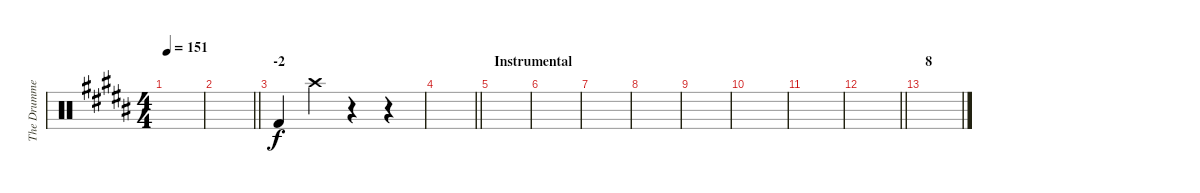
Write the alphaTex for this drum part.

\track ("The Drummer" "The Drumme") {instrument percussion}
\staff {score}
\articulation defaults
\ts (4 4)
\tempo 151
\clef neutral
\ks b
|
\barLineRight lightlight
|
\section ("" "-2")
"Kick (hit) 2".4 "Crash high (hit)".4 r.4 r.4 |
\barLineRight lightlight
|
\section ("" "Instrumental")
|
|
|
|
|
|
|
\barLineRight lightlight
|
\section ("" "8")
